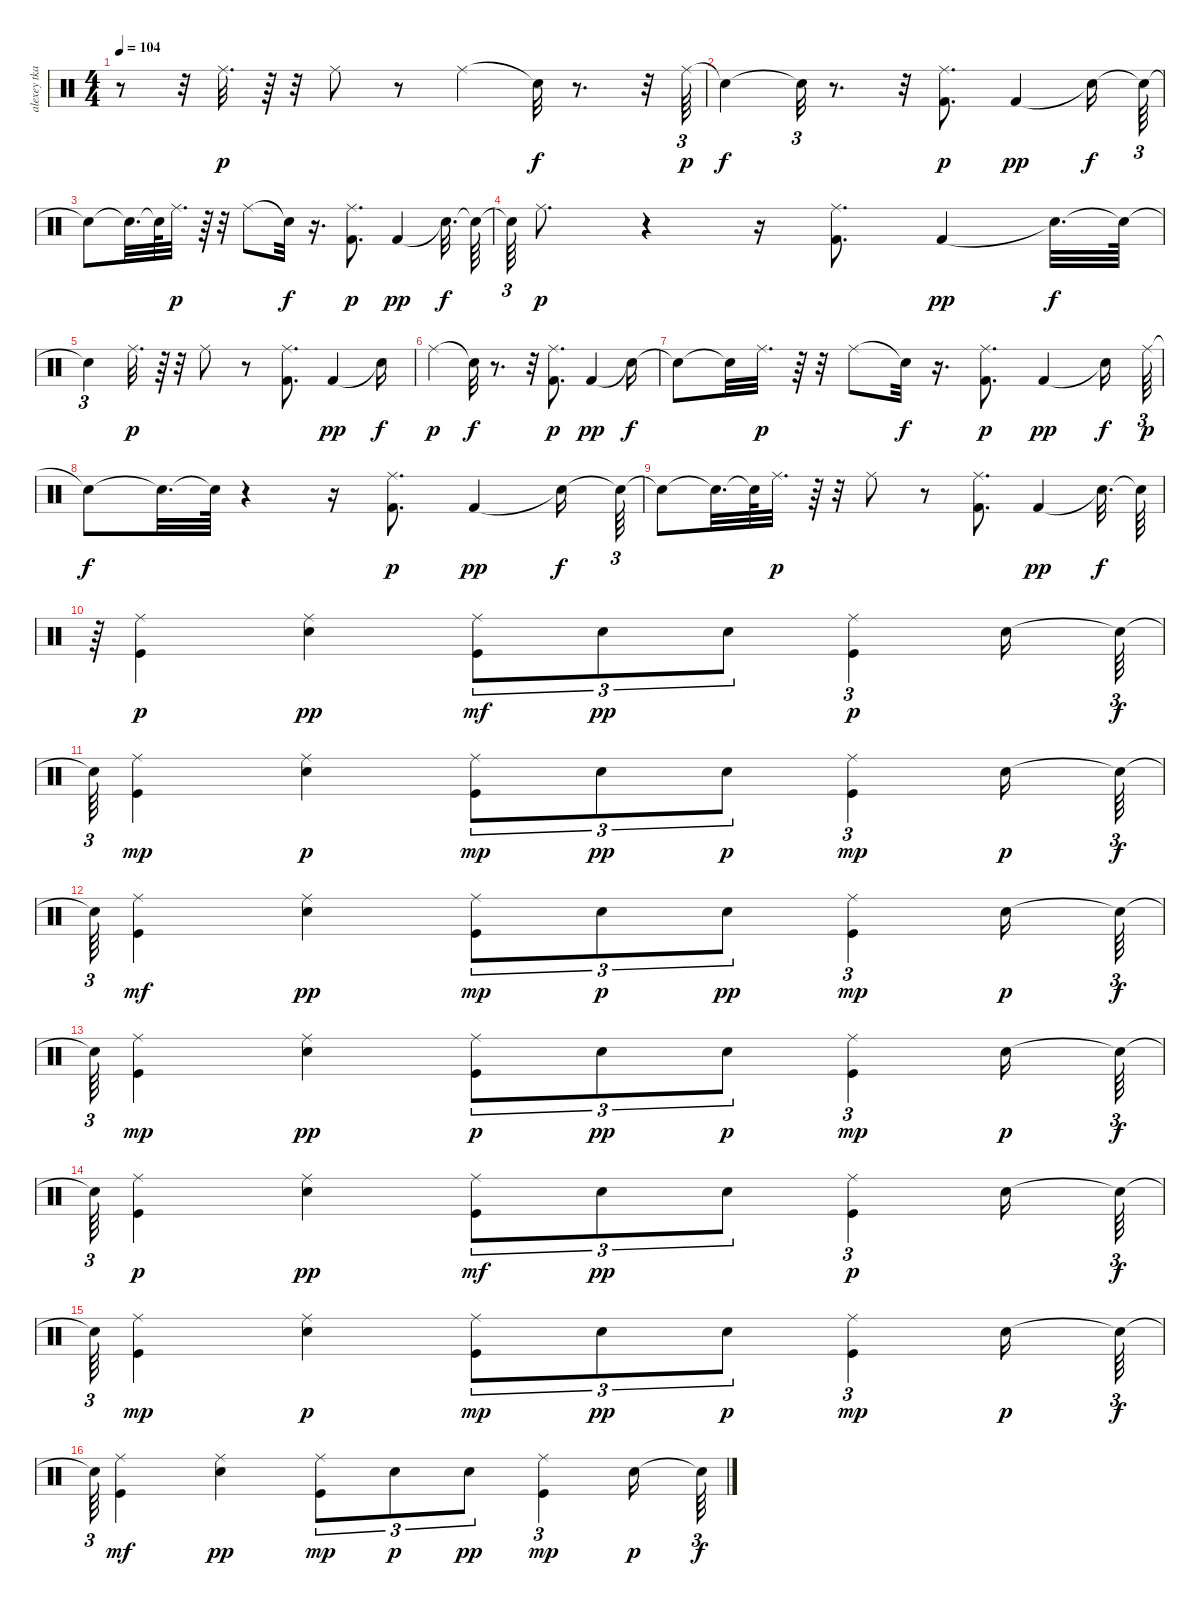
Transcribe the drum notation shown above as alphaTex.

\track ("alexey tkachevsky" "alexey tka") {instrument percussion}
\staff {score}
\articulation defaults
\ts (4 4)
\tempo 104
\clef neutral
\ks c
r.8{dy p} r.32 "Ride (middle)".32{d} r.64 r.32 "Ride (middle)".8 r.8 "Ride (middle)".4 "Snare (hit)"{t}.32{dy f} r.8{d} r.32 "Ride (middle)".64{tu (3 2) dy p} |
"Snare (hit)"{t}.4{dy f} "Snare (hit)"{t}.32{tu (3 2)} r.8{d} r.32 ("Kick (hit) 2" "Ride (middle)").8{d dy p} "Kick (hit) 2".4{dy pp} "Snare (hit)"{t}.16{dy f} "Snare (hit)"{t}.64{tu (3 2)} |
"Snare (hit)"{t}.8 "Snare (hit)"{t}.32{d} "Snare (hit)"{t}.64 "Ride (middle)".32{d dy p} r.64 r.32 "Ride (middle)".8 "Snare (hit)"{t}.32{dy f} r.16{d} ("Kick (hit) 2" "Ride (middle)").8{d dy p} "Kick (hit) 2".4{dy pp} "Snare (hit)"{t}.32{d dy f} "Snare (hit)"{t}.64 |
"Snare (hit)"{t}.64{tu (3 2)} "Ride (middle)".8{d dy p} r.4 r.16 ("Kick (hit) 2" "Ride (middle)").8{d} "Kick (hit) 2".4{dy pp} "Snare (hit)"{t}.32{d dy f} "Snare (hit)"{t}.64 |
"Snare (hit)"{t}.4{tu (3 2)} "Ride (middle)".32{d dy p} r.64 r.32 "Ride (middle)".8 r.8 ("Kick (hit) 2" "Ride (middle)").8{d} "Kick (hit) 2".4{dy pp} "Snare (hit)"{t}.16{dy f} |
"Ride (middle)".4{dy p} "Snare (hit)"{t}.32{dy f} r.8{d} r.32 ("Kick (hit) 2" "Ride (middle)").8{d dy p} "Kick (hit) 2".4{dy pp} "Snare (hit)"{t}.16{dy f} |
"Snare (hit)"{t}.8 "Snare (hit)"{t}.32 "Ride (middle)".32{d dy p} r.64 r.32 "Ride (middle)".8 "Snare (hit)"{t}.32{dy f} r.16{d} ("Kick (hit) 2" "Ride (middle)").8{d dy p} "Kick (hit) 2".4{dy pp} "Snare (hit)"{t}.16{dy f} "Ride (middle)".64{tu (3 2) dy p} |
"Snare (hit)"{t}.8{dy f} "Snare (hit)"{t}.32{d} "Snare (hit)"{t}.64 r.4 r.16 ("Kick (hit) 2" "Ride (middle)").8{d dy p} "Kick (hit) 2".4{dy pp} "Snare (hit)"{t}.16{dy f} "Snare (hit)"{t}.64{tu (3 2)} |
"Snare (hit)"{t}.8 "Snare (hit)"{t}.32{d} "Snare (hit)"{t}.64 "Ride (middle)".32{d dy p} r.64 r.32 "Ride (middle)".8 r.8 ("Kick (hit) 2" "Ride (middle)").8{d} "Kick (hit) 2".4{dy pp} "Snare (hit)"{t}.32{d dy f} "Snare (hit)"{t}.64 |
r.64{tu (3 2)} ("Ride (middle)" "Kick (hit)").4{dy p} ("Snare (hit)" "Ride (middle)").4{dy pp} ("Kick (hit)" "Ride (middle)").8{tu (3 2) dy mf} "Snare (hit)".8{tu (3 2) dy pp} "Snare (hit)".8{tu (3 2)} ("Kick (hit)" "Ride (middle)").4{tu (3 2) dy p} "Snare (hit)".16 "Snare (hit)"{t}.64{tu (3 2) dy f} |
"Snare (hit)"{t}.64{tu (3 2)} ("Kick (hit)" "Ride (middle)").4{dy mp} ("Ride (middle)" "Snare (hit)").4{dy p} ("Ride (middle)" "Kick (hit)").8{tu (3 2) dy mp} "Snare (hit)".8{tu (3 2) dy pp} "Snare (hit)".8{tu (3 2) dy p} ("Ride (middle)" "Kick (hit)").4{tu (3 2) dy mp} "Snare (hit)".16{dy p} "Snare (hit)"{t}.64{tu (3 2) dy f} |
"Snare (hit)"{t}.64{tu (3 2)} ("Ride (middle)" "Kick (hit)").4{dy mf} ("Ride (middle)" "Snare (hit)").4{dy pp} ("Ride (middle)" "Kick (hit)").8{tu (3 2) dy mp} "Snare (hit)".8{tu (3 2) dy p} "Snare (hit)".8{tu (3 2) dy pp} ("Ride (middle)" "Kick (hit)").4{tu (3 2) dy mp} "Snare (hit)".16{dy p} "Snare (hit)"{t}.64{tu (3 2) dy f} |
"Snare (hit)"{t}.64{tu (3 2)} ("Ride (middle)" "Kick (hit)").4{dy mp} ("Ride (middle)" "Snare (hit)").4{dy pp} ("Ride (middle)" "Kick (hit)").8{tu (3 2) dy p} "Snare (hit)".8{tu (3 2) dy pp} "Snare (hit)".8{tu (3 2) dy p} ("Ride (middle)" "Kick (hit)").4{tu (3 2) dy mp} "Snare (hit)".16{dy p} "Snare (hit)"{t}.64{tu (3 2) dy f} |
"Snare (hit)"{t}.64{tu (3 2)} ("Ride (middle)" "Kick (hit)").4{dy p} ("Snare (hit)" "Ride (middle)").4{dy pp} ("Kick (hit)" "Ride (middle)").8{tu (3 2) dy mf} "Snare (hit)".8{tu (3 2) dy pp} "Snare (hit)".8{tu (3 2)} ("Kick (hit)" "Ride (middle)").4{tu (3 2) dy p} "Snare (hit)".16 "Snare (hit)"{t}.64{tu (3 2) dy f} |
"Snare (hit)"{t}.64{tu (3 2)} ("Kick (hit)" "Ride (middle)").4{dy mp} ("Ride (middle)" "Snare (hit)").4{dy p} ("Ride (middle)" "Kick (hit)").8{tu (3 2) dy mp} "Snare (hit)".8{tu (3 2) dy pp} "Snare (hit)".8{tu (3 2) dy p} ("Ride (middle)" "Kick (hit)").4{tu (3 2) dy mp} "Snare (hit)".16{dy p} "Snare (hit)"{t}.64{tu (3 2) dy f} |
"Snare (hit)"{t}.64{tu (3 2)} ("Ride (middle)" "Kick (hit)").4{dy mf} ("Ride (middle)" "Snare (hit)").4{dy pp} ("Ride (middle)" "Kick (hit)").8{tu (3 2) dy mp} "Snare (hit)".8{tu (3 2) dy p} "Snare (hit)".8{tu (3 2) dy pp} ("Ride (middle)" "Kick (hit)").4{tu (3 2) dy mp} "Snare (hit)".16{dy p} "Snare (hit)"{t}.64{tu (3 2) dy f}
